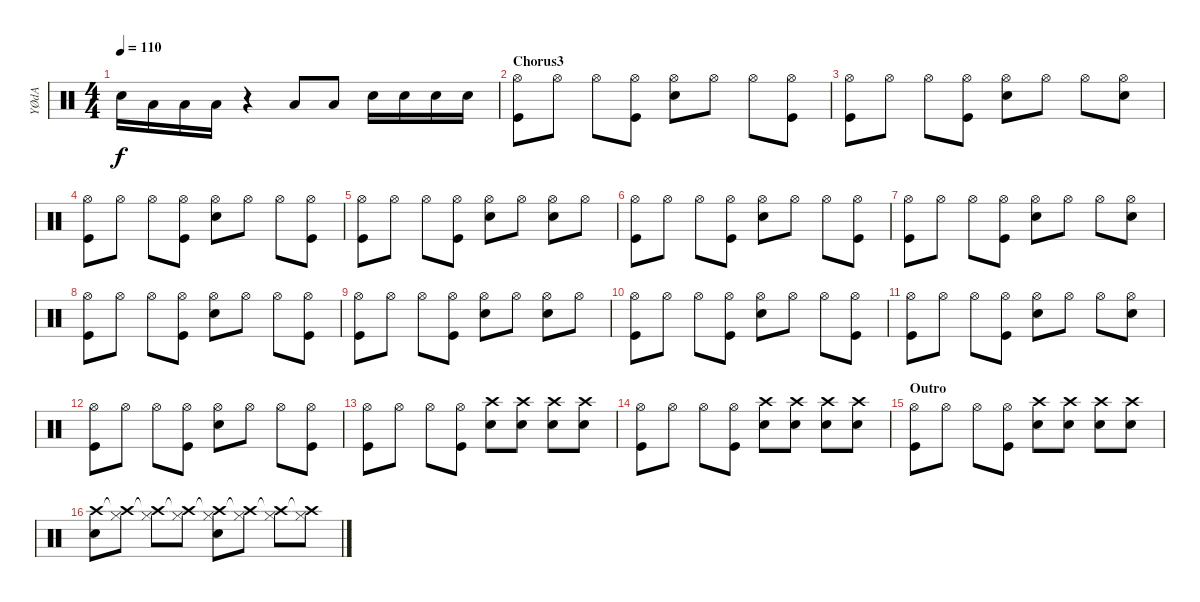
\track ("YØdA" "YØdA") {instrument percussion}
\staff {score}
\articulation defaults
\ts (4 4)
\tempo 110
\clef neutral
\ks c "Electric Snare (hit)".16{dy f} "Low Tom (hit)".16 "Low Tom (hit)".16 "Low Tom (hit)".16
r.4 "Low Tom (hit)".8 "Low Tom (hit)".8 "Electric Snare (hit)".16 "Electric Snare (hit)".16 "Electric Snare (hit)".16 "Electric Snare (hit)".16 |
\section ("" "Chorus3")
("Hi-Hat (open)" "Kick (hit)").8 "Hi-Hat (open)".8 "Hi-Hat (open)".8 ("Hi-Hat (open)" "Kick (hit)").8 ("Hi-Hat (open)" "Electric Snare (hit)").8 "Hi-Hat (open)".8 "Hi-Hat (open)".8 ("Hi-Hat (open)" "Kick (hit)").8 |
("Hi-Hat (open)" "Kick (hit)").8 "Hi-Hat (open)".8 "Hi-Hat (open)".8 ("Hi-Hat (open)" "Kick (hit)").8 ("Hi-Hat (open)" "Electric Snare (hit)").8 "Hi-Hat (open)".8 "Hi-Hat (open)".8 ("Hi-Hat (open)" "Electric Snare (hit)").8 |
("Hi-Hat (open)" "Kick (hit)").8 "Hi-Hat (open)".8 "Hi-Hat (open)".8 ("Hi-Hat (open)" "Kick (hit)").8 ("Hi-Hat (open)" "Electric Snare (hit)").8 "Hi-Hat (open)".8 "Hi-Hat (open)".8 ("Hi-Hat (open)" "Kick (hit)").8 |
("Hi-Hat (open)" "Kick (hit)").8 "Hi-Hat (open)".8 "Hi-Hat (open)".8 ("Hi-Hat (open)" "Kick (hit)").8 ("Hi-Hat (open)" "Electric Snare (hit)").8 "Hi-Hat (open)".8 ("Hi-Hat (open)" "Electric Snare (hit)").8 "Hi-Hat (open)".8 |
("Hi-Hat (open)" "Kick (hit)").8 "Hi-Hat (open)".8 "Hi-Hat (open)".8 ("Hi-Hat (open)" "Kick (hit)").8 ("Hi-Hat (open)" "Electric Snare (hit)").8 "Hi-Hat (open)".8 "Hi-Hat (open)".8 ("Hi-Hat (open)" "Kick (hit)").8 |
("Hi-Hat (open)" "Kick (hit)").8 "Hi-Hat (open)".8 "Hi-Hat (open)".8 ("Hi-Hat (open)" "Kick (hit)").8 ("Hi-Hat (open)" "Electric Snare (hit)").8 "Hi-Hat (open)".8 "Hi-Hat (open)".8 ("Hi-Hat (open)" "Electric Snare (hit)").8 |
("Hi-Hat (open)" "Kick (hit)").8 "Hi-Hat (open)".8 "Hi-Hat (open)".8 ("Hi-Hat (open)" "Kick (hit)").8 ("Hi-Hat (open)" "Electric Snare (hit)").8 "Hi-Hat (open)".8 "Hi-Hat (open)".8 ("Hi-Hat (open)" "Kick (hit)").8 |
("Hi-Hat (open)" "Kick (hit)").8 "Hi-Hat (open)".8 "Hi-Hat (open)".8 ("Hi-Hat (open)" "Kick (hit)").8 ("Hi-Hat (open)" "Electric Snare (hit)").8 "Hi-Hat (open)".8 ("Hi-Hat (open)" "Electric Snare (hit)").8 "Hi-Hat (open)".8 |
("Hi-Hat (open)" "Kick (hit)").8 "Hi-Hat (open)".8 "Hi-Hat (open)".8 ("Hi-Hat (open)" "Kick (hit)").8 ("Hi-Hat (open)" "Electric Snare (hit)").8 "Hi-Hat (open)".8 "Hi-Hat (open)".8 ("Hi-Hat (open)" "Kick (hit)").8 |
("Hi-Hat (open)" "Kick (hit)").8 "Hi-Hat (open)".8 "Hi-Hat (open)".8 ("Hi-Hat (open)" "Kick (hit)").8 ("Hi-Hat (open)" "Electric Snare (hit)").8 "Hi-Hat (open)".8 "Hi-Hat (open)".8 ("Hi-Hat (open)" "Electric Snare (hit)").8 |
("Hi-Hat (open)" "Kick (hit)").8 "Hi-Hat (open)".8 "Hi-Hat (open)".8 ("Hi-Hat (open)" "Kick (hit)").8 ("Hi-Hat (open)" "Electric Snare (hit)").8 "Hi-Hat (open)".8 "Hi-Hat (open)".8 ("Hi-Hat (open)" "Kick (hit)").8 |
("Hi-Hat (open)" "Kick (hit)").8 "Hi-Hat (open)".8 "Hi-Hat (open)".8 ("Hi-Hat (open)" "Kick (hit)").8 ("Crash high (hit)" "Electric Snare (hit)").8 ("Crash high (hit)" "Electric Snare (hit)").8 ("Crash high (hit)" "Electric Snare (hit)").8 ("Crash high (hit)" "Electric Snare (hit)").8 |
("Hi-Hat (open)" "Kick (hit)").8 "Hi-Hat (open)".8 "Hi-Hat (open)".8 ("Hi-Hat (open)" "Kick (hit)").8 ("Crash high (hit)" "Electric Snare (hit)").8 ("Crash high (hit)" "Electric Snare (hit)").8 ("Crash high (hit)" "Electric Snare (hit)").8 ("Crash high (hit)" "Electric Snare (hit)").8 |
\section ("" "Outro")
("Hi-Hat (open)" "Kick (hit)").8 "Hi-Hat (open)".8 "Hi-Hat (open)".8 ("Hi-Hat (open)" "Kick (hit)").8 ("Crash high (hit)" "Electric Snare (hit)").8 ("Crash high (hit)" "Electric Snare (hit)").8 ("Crash high (hit)" "Electric Snare (hit)").8 ("Crash high (hit)" "Electric Snare (hit)").8 |
("Crash high (hit)" "Electric Snare (hit)").8 ("Crash high (hit)"{t} "Hi-Hat (closed)").8 ("Crash high (hit)"{t} "Hi-Hat (closed)").8 ("Crash high (hit)"{t} "Hi-Hat (closed)").8 ("Crash high (hit)"{t} "Hi-Hat (closed)" "Electric Snare (hit)").8 ("Crash high (hit)"{t} "Hi-Hat (closed)").8 ("Crash high (hit)"{t} "Hi-Hat (closed)").8 ("Crash high (hit)"{t} "Hi-Hat (closed)").8
